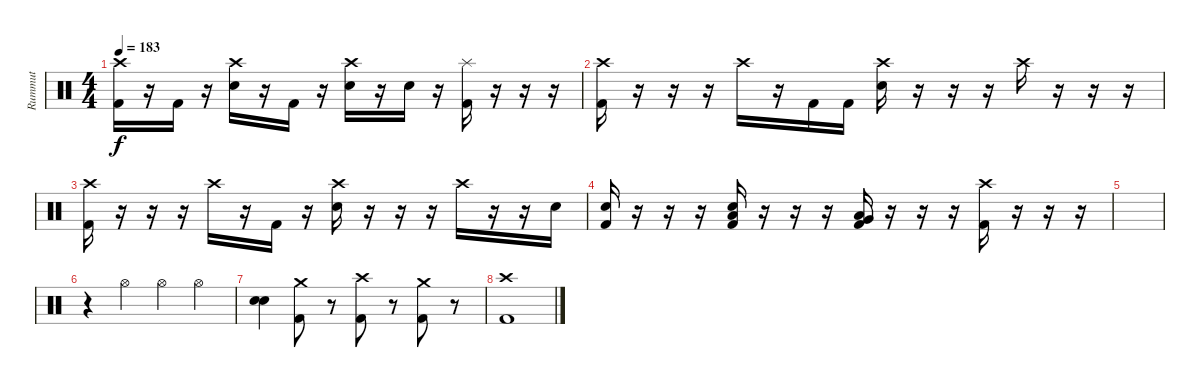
\track ("Rummut" "Rummut") {instrument percussion}
\staff {score}
\articulation defaults
\ts (4 4)
\tempo 183
\clef neutral
\ks c
("Crash high (hit)" "Kick (hit) 2").16{dy f} r.16 "Kick (hit) 2".16 r.16 ("Crash high (hit)" "Electric Snare (hit)").16 r.16 "Kick (hit) 2".16 r.16 ("Crash high (hit)" "Electric Snare (hit)").16 r.16 "Electric Snare (hit)".16 r.16 ("Splash (hit)" "Kick (hit) 2").16 r.16 r.16 r.16 |
("Crash high (hit)" "Kick (hit) 2").16 r.16 r.16 r.16 "Crash high (hit)".16 r.16 "Kick (hit) 2".16 "Kick (hit) 2".16 ("Crash high (hit)" "Electric Snare (hit)").16 r.16 r.16 r.16 "Crash high (hit)".16 r.16 r.16 r.16 |
("Crash high (hit)" "Kick (hit) 2").16 r.16 r.16 r.16 "Crash high (hit)".16 r.16 "Kick (hit) 2".16 r.16 ("Crash high (hit)" "Electric Snare (hit)").16 r.16 r.16 r.16 "Crash high (hit)".16 r.16 r.16 "Electric Snare (hit)".16 |
("Electric Snare (hit)" "Kick (hit) 2").16 r.16 r.16 r.16 ("Electric Snare (hit)" "Low Tom (hit)" "Kick (hit) 2").16 r.16 r.16 r.16 ("Low Tom (hit)" "Very Low Tom (hit)" "Kick (hit) 2").16 r.16 r.16 r.16 ("Crash high (hit)" "Kick (hit) 2").16 r.16 r.16 r.16 |
|
r.4 "Hi-Hat (open)".4 "Hi-Hat (open)".4 "Hi-Hat (open)".4 |
("Electric Snare (hit)" "Electric Snare (hit)").4 ("Crash medium (hit)" "Kick (hit) 2").8 r.8 ("Crash high (hit)" "Kick (hit) 2").8 r.8 ("Crash medium (hit)" "Kick (hit) 2").8 r.8 |
("Crash high (hit)" "Kick (hit) 2").1
